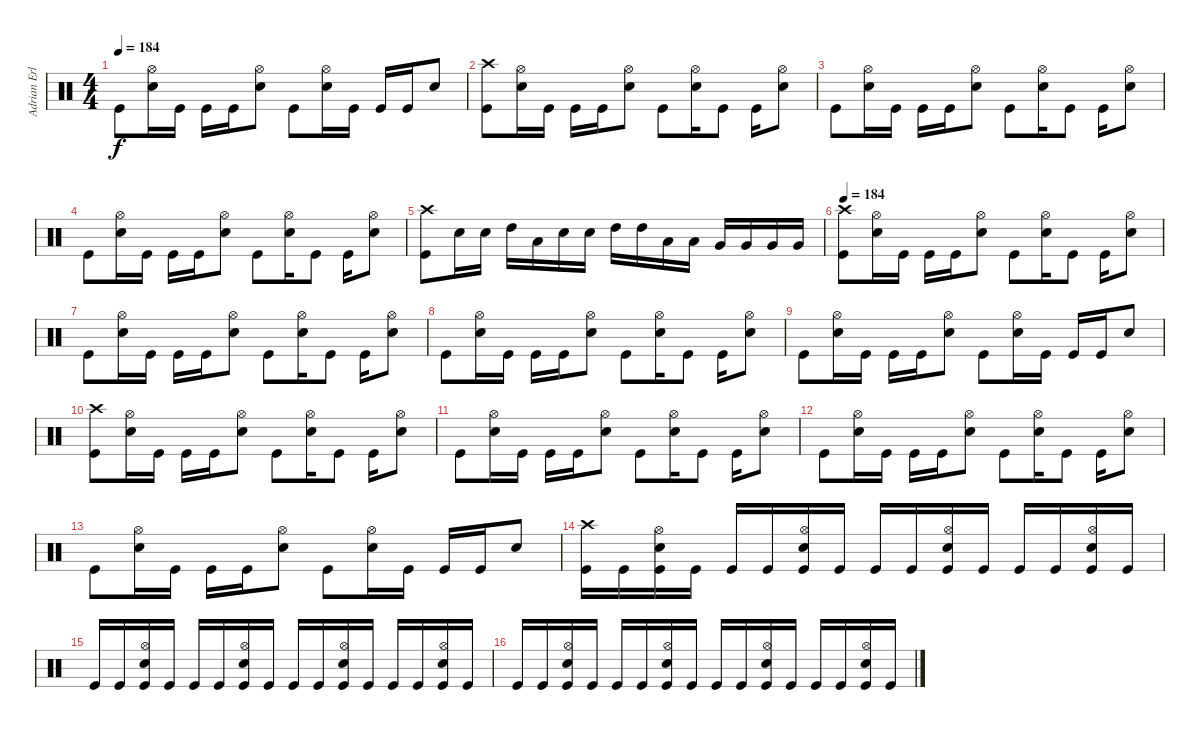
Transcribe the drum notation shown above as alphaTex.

\track ("Adrian Erlandsson (Norseman of the Apoca" "Adrian Erl") {instrument percussion}
\staff {score}
\articulation defaults
\ts (4 4)
\tempo 184
\clef neutral
\ks c "Kick (hit)".8{dy f}
("Hi-Hat (open)" "Electric Snare (hit)").16 "Kick (hit)".16 "Kick (hit)".16 "Kick (hit)".16 ("Hi-Hat (open)" "Electric Snare (hit)").8 "Kick (hit)".8 ("Hi-Hat (open)" "Electric Snare (hit)").16 "Kick (hit)".16 "Kick (hit)".16 "Kick (hit)".16 "Electric Snare (hit)".8 |
("Crash high (hit)" "Kick (hit)").8 ("Hi-Hat (open)" "Electric Snare (hit)").16 "Kick (hit)".16 "Kick (hit)".16 "Kick (hit)".16 ("Hi-Hat (open)" "Electric Snare (hit)").8 "Kick (hit)".8 ("Hi-Hat (open)" "Electric Snare (hit)").16 "Kick (hit)".8 "Kick (hit)".16 ("Hi-Hat (open)" "Electric Snare (hit)").8 |
"Kick (hit)".8 ("Hi-Hat (open)" "Electric Snare (hit)").16 "Kick (hit)".16 "Kick (hit)".16 "Kick (hit)".16 ("Hi-Hat (open)" "Electric Snare (hit)").8 "Kick (hit)".8 ("Hi-Hat (open)" "Electric Snare (hit)").16 "Kick (hit)".8 "Kick (hit)".16 ("Hi-Hat (open)" "Electric Snare (hit)").8 |
"Kick (hit)".8 ("Hi-Hat (open)" "Electric Snare (hit)").16 "Kick (hit)".16 "Kick (hit)".16 "Kick (hit)".16 ("Hi-Hat (open)" "Electric Snare (hit)").8 "Kick (hit)".8 ("Hi-Hat (open)" "Electric Snare (hit)").16 "Kick (hit)".8 "Kick (hit)".16 ("Hi-Hat (open)" "Electric Snare (hit)").8 |
("Crash high (hit)" "Kick (hit)").8 "Electric Snare (hit)".16 "Electric Snare (hit)".16 "High Tom (hit)".16 "Low Tom (hit)".16 "Electric Snare (hit)".16 "Electric Snare (hit)".16 "High Tom (hit)".16 "High Tom (hit)".16 "Low Tom (hit)".16 "Low Tom (hit)".16 "Very Low Tom (hit)".16 "Very Low Tom (hit)".16 "Very Low Tom (hit)".16 "Very Low Tom (hit)".16 |
\tempo 184
("Crash high (hit)" "Kick (hit)").8 ("Hi-Hat (open)" "Electric Snare (hit)").16 "Kick (hit)".16 "Kick (hit)".16 "Kick (hit)".16 ("Hi-Hat (open)" "Electric Snare (hit)").8 "Kick (hit)".8 ("Hi-Hat (open)" "Electric Snare (hit)").16 "Kick (hit)".8 "Kick (hit)".16 ("Hi-Hat (open)" "Electric Snare (hit)").8 |
"Kick (hit)".8 ("Hi-Hat (open)" "Electric Snare (hit)").16 "Kick (hit)".16 "Kick (hit)".16 "Kick (hit)".16 ("Hi-Hat (open)" "Electric Snare (hit)").8 "Kick (hit)".8 ("Hi-Hat (open)" "Electric Snare (hit)").16 "Kick (hit)".8 "Kick (hit)".16 ("Hi-Hat (open)" "Electric Snare (hit)").8 |
"Kick (hit)".8 ("Hi-Hat (open)" "Electric Snare (hit)").16 "Kick (hit)".16 "Kick (hit)".16 "Kick (hit)".16 ("Hi-Hat (open)" "Electric Snare (hit)").8 "Kick (hit)".8 ("Hi-Hat (open)" "Electric Snare (hit)").16 "Kick (hit)".8 "Kick (hit)".16 ("Hi-Hat (open)" "Electric Snare (hit)").8 |
"Kick (hit)".8 ("Hi-Hat (open)" "Electric Snare (hit)").16 "Kick (hit)".16 "Kick (hit)".16 "Kick (hit)".16 ("Hi-Hat (open)" "Electric Snare (hit)").8 "Kick (hit)".8 ("Hi-Hat (open)" "Electric Snare (hit)").16 "Kick (hit)".16 "Kick (hit)".16 "Kick (hit)".16 "Electric Snare (hit)".8 |
("Crash high (hit)" "Kick (hit)").8 ("Hi-Hat (open)" "Electric Snare (hit)").16 "Kick (hit)".16 "Kick (hit)".16 "Kick (hit)".16 ("Hi-Hat (open)" "Electric Snare (hit)").8 "Kick (hit)".8 ("Hi-Hat (open)" "Electric Snare (hit)").16 "Kick (hit)".8 "Kick (hit)".16 ("Hi-Hat (open)" "Electric Snare (hit)").8 |
"Kick (hit)".8 ("Hi-Hat (open)" "Electric Snare (hit)").16 "Kick (hit)".16 "Kick (hit)".16 "Kick (hit)".16 ("Hi-Hat (open)" "Electric Snare (hit)").8 "Kick (hit)".8 ("Hi-Hat (open)" "Electric Snare (hit)").16 "Kick (hit)".8 "Kick (hit)".16 ("Hi-Hat (open)" "Electric Snare (hit)").8 |
"Kick (hit)".8 ("Hi-Hat (open)" "Electric Snare (hit)").16 "Kick (hit)".16 "Kick (hit)".16 "Kick (hit)".16 ("Hi-Hat (open)" "Electric Snare (hit)").8 "Kick (hit)".8 ("Hi-Hat (open)" "Electric Snare (hit)").16 "Kick (hit)".8 "Kick (hit)".16 ("Hi-Hat (open)" "Electric Snare (hit)").8 |
"Kick (hit)".8 ("Hi-Hat (open)" "Electric Snare (hit)").16 "Kick (hit)".16 "Kick (hit)".16 "Kick (hit)".16 ("Hi-Hat (open)" "Electric Snare (hit)").8 "Kick (hit)".8 ("Hi-Hat (open)" "Electric Snare (hit)").16 "Kick (hit)".16 "Kick (hit)".16 "Kick (hit)".16 "Electric Snare (hit)".8 |
("Crash high (hit)" "Kick (hit)").16 "Kick (hit)".16 ("Hi-Hat (open)" "Electric Snare (hit)" "Kick (hit)").16 "Kick (hit)".16 "Kick (hit)".16 "Kick (hit)".16 ("Hi-Hat (open)" "Electric Snare (hit)" "Kick (hit)").16 "Kick (hit)".16 "Kick (hit)".16 "Kick (hit)".16 ("Hi-Hat (open)" "Electric Snare (hit)" "Kick (hit)").16 "Kick (hit)".16 "Kick (hit)".16 "Kick (hit)".16 ("Hi-Hat (open)" "Electric Snare (hit)" "Kick (hit)").16 "Kick (hit)".16 |
"Kick (hit)".16 "Kick (hit)".16 ("Hi-Hat (open)" "Electric Snare (hit)" "Kick (hit)").16 "Kick (hit)".16 "Kick (hit)".16 "Kick (hit)".16 ("Hi-Hat (open)" "Electric Snare (hit)" "Kick (hit)").16 "Kick (hit)".16 "Kick (hit)".16 "Kick (hit)".16 ("Hi-Hat (open)" "Electric Snare (hit)" "Kick (hit)").16 "Kick (hit)".16 "Kick (hit)".16 "Kick (hit)".16 ("Hi-Hat (open)" "Electric Snare (hit)" "Kick (hit)").16 "Kick (hit)".16 |
"Kick (hit)".16 "Kick (hit)".16 ("Hi-Hat (open)" "Electric Snare (hit)" "Kick (hit)").16 "Kick (hit)".16 "Kick (hit)".16 "Kick (hit)".16 ("Hi-Hat (open)" "Electric Snare (hit)" "Kick (hit)").16 "Kick (hit)".16 "Kick (hit)".16 "Kick (hit)".16 ("Hi-Hat (open)" "Electric Snare (hit)" "Kick (hit)").16 "Kick (hit)".16 "Kick (hit)".16 "Kick (hit)".16 ("Hi-Hat (open)" "Electric Snare (hit)" "Kick (hit)").16 "Kick (hit)".16
